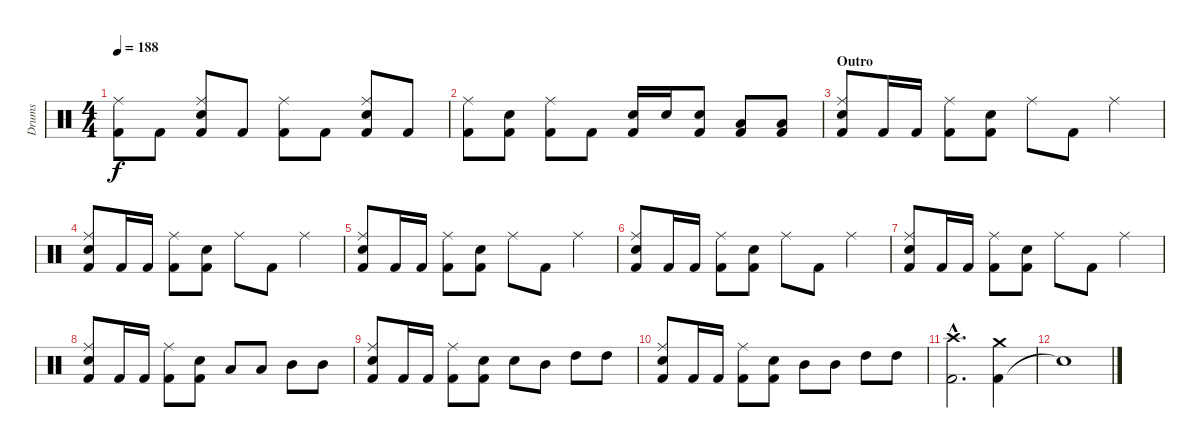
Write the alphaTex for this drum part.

\track ("Drums" "Drums") {instrument percussion}
\staff {score}
\articulation defaults
\ts (4 4)
\tempo 188
\clef neutral
\ks c
("Kick (hit) 2" "Ride (middle)").8{dy f} "Kick (hit) 2".8 ("Kick (hit) 2" "Snare (hit) 2" "Ride (middle)").8 "Kick (hit) 2".8 ("Kick (hit) 2" "Ride (middle)").8 "Kick (hit) 2".8 ("Kick (hit) 2" "Snare (hit) 2" "Ride (middle)").8 "Kick (hit) 2".8 |
("Kick (hit) 2" "Ride (middle)").8 ("Kick (hit) 2" "Snare (hit) 2").8 ("Kick (hit) 2" "Ride (middle)").8 "Kick (hit) 2".8 ("Kick (hit) 2" "Snare (hit) 2").16 "Snare (hit) 2".16 ("Kick (hit) 2" "Snare (hit) 2").8 ("Kick (hit) 2" "Low Tom (hit)").8 ("Kick (hit) 2" "Low Tom (hit)").8 |
\section ("" "Outro")
("Kick (hit) 2" "Snare (hit) 2" "Ride (middle)").8 "Kick (hit) 2".16 "Kick (hit) 2".16 ("Kick (hit) 2" "Ride (middle)").8 ("Kick (hit) 2" "Snare (hit) 2").8 "Ride (middle)".8 "Kick (hit) 2".8 "Ride (middle)".4 |
("Kick (hit) 2" "Snare (hit) 2" "Ride (middle)").8 "Kick (hit) 2".16 "Kick (hit) 2".16 ("Kick (hit) 2" "Ride (middle)").8 ("Kick (hit) 2" "Snare (hit) 2").8 "Ride (middle)".8 "Kick (hit) 2".8 "Ride (middle)".4 |
("Kick (hit) 2" "Snare (hit) 2" "Ride (middle)").8 "Kick (hit) 2".16 "Kick (hit) 2".16 ("Kick (hit) 2" "Ride (middle)").8 ("Kick (hit) 2" "Snare (hit) 2").8 "Ride (middle)".8 "Kick (hit) 2".8 "Ride (middle)".4 |
("Kick (hit) 2" "Snare (hit) 2" "Ride (middle)").8 "Kick (hit) 2".16 "Kick (hit) 2".16 ("Kick (hit) 2" "Ride (middle)").8 ("Kick (hit) 2" "Snare (hit) 2").8 "Ride (middle)".8 "Kick (hit) 2".8 "Ride (middle)".4 |
("Kick (hit) 2" "Snare (hit) 2" "Ride (middle)").8 "Kick (hit) 2".16 "Kick (hit) 2".16 ("Kick (hit) 2" "Ride (middle)").8 ("Kick (hit) 2" "Snare (hit) 2").8 "Ride (middle)".8 "Kick (hit) 2".8 "Ride (middle)".4 |
("Kick (hit) 2" "Snare (hit) 2" "Ride (middle)").8 "Kick (hit) 2".16 "Kick (hit) 2".16 ("Kick (hit) 2" "Ride (middle)").8 ("Kick (hit) 2" "Snare (hit) 2").8 "Low Tom (hit)".8 "Low Tom (hit)".8 "Mid Tom (hit)".8 "Mid Tom (hit)".8 |
("Kick (hit) 2" "Snare (hit) 2" "Ride (middle)").8 "Kick (hit) 2".16 "Kick (hit) 2".16 ("Kick (hit) 2" "Ride (middle)").8 ("Kick (hit) 2" "Snare (hit) 2").8 "Snare (hit) 2".8 "Mid Tom (hit)".8 "High Tom (hit)".8 "High Tom (hit)".8 |
("Kick (hit) 2" "Snare (hit) 2" "Ride (middle)").8 "Kick (hit) 2".16 "Kick (hit) 2".16 ("Kick (hit) 2" "Ride (middle)").8 ("Kick (hit) 2" "Snare (hit) 2").8 "Mid Tom (hit)".8 "Mid Tom (hit)".8 "High Tom (hit)".8 "High Tom (hit)".8 |
("Kick (hit) 2"{hac} "Crash high (hit)"{hac}).2{d} ("Kick (hit) 2" "Crash medium (hit)").4 |
"Snare (hit)"{t}.1
